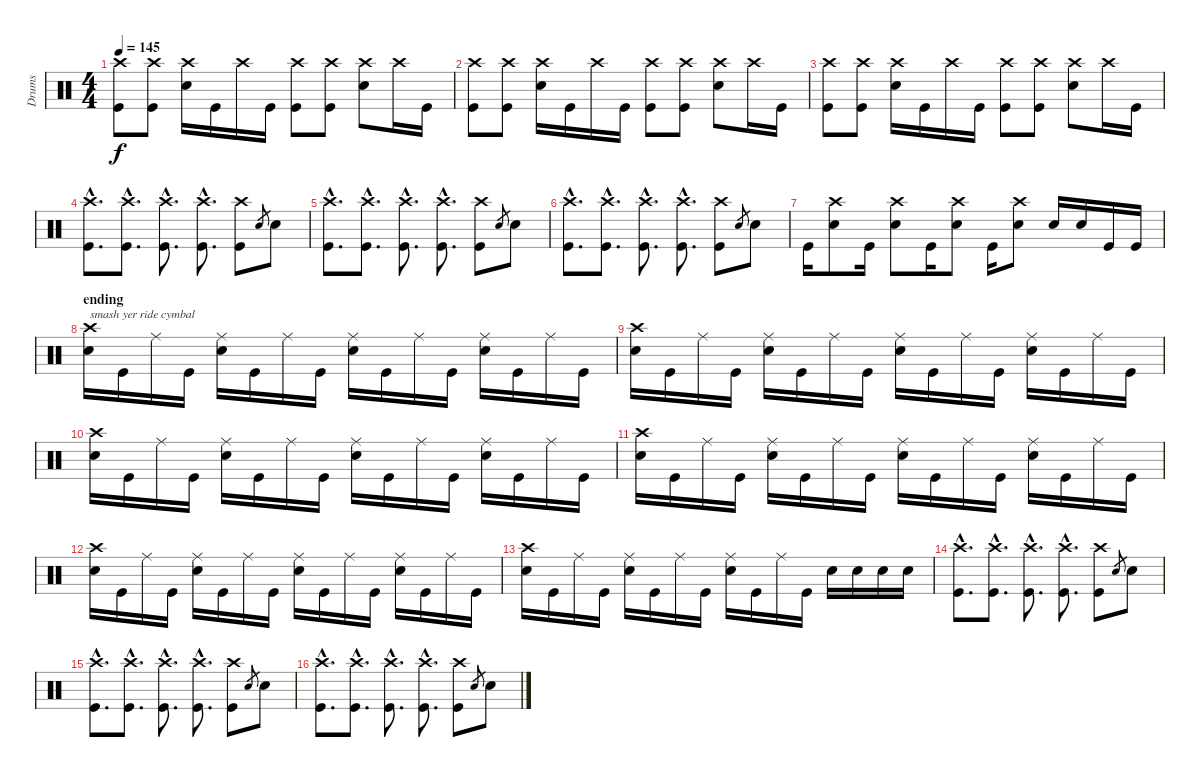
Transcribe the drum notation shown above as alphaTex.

\track ("Drums" "Drums") {instrument percussion}
\staff {score}
\articulation defaults
\ts (4 4)
\tempo 145
\clef neutral
\ks c
("Crash high (hit)" "Kick (hit)").8{dy f} ("Crash high (hit)" "Kick (hit)").8 ("Crash high (hit)" "Electric Snare (hit)").16 "Kick (hit)".16 "Crash high (hit)".16 "Kick (hit)".16 ("Crash high (hit)" "Kick (hit)").8 ("Crash high (hit)" "Kick (hit)").8 ("Crash high (hit)" "Electric Snare (hit)").8 "Crash high (hit)".16 "Kick (hit)".16 |
("Crash high (hit)" "Kick (hit)").8 ("Crash high (hit)" "Kick (hit)").8 ("Crash high (hit)" "Electric Snare (hit)").16 "Kick (hit)".16 "Crash high (hit)".16 "Kick (hit)".16 ("Crash high (hit)" "Kick (hit)").8 ("Crash high (hit)" "Kick (hit)").8 ("Crash high (hit)" "Electric Snare (hit)").8 "Crash high (hit)".16 "Kick (hit)".16 |
("Crash high (hit)" "Kick (hit)").8 ("Crash high (hit)" "Kick (hit)").8 ("Crash high (hit)" "Electric Snare (hit)").16 "Kick (hit)".16 "Crash high (hit)".16 "Kick (hit)".16 ("Crash high (hit)" "Kick (hit)").8 ("Crash high (hit)" "Kick (hit)").8 ("Crash high (hit)" "Electric Snare (hit)").8 "Crash high (hit)".16 "Kick (hit)".16 |
("Crash high (hit)"{hac} "Kick (hit)"{hac}).8{d} ("Crash high (hit)"{hac} "Kick (hit)"{hac}).8{d} ("Crash high (hit)"{hac} "Kick (hit)"{hac}).8{d} ("Crash high (hit)"{hac} "Kick (hit)"{hac}).8{d} ("Crash high (hit)" "Kick (hit)").8 "Electric Snare (hit)".8{gr} "Electric Snare (hit)".8 |
("Crash high (hit)"{hac} "Kick (hit)"{hac}).8{d} ("Crash high (hit)"{hac} "Kick (hit)"{hac}).8{d} ("Crash high (hit)"{hac} "Kick (hit)"{hac}).8{d} ("Crash high (hit)"{hac} "Kick (hit)"{hac}).8{d} ("Crash high (hit)" "Kick (hit)").8 "Electric Snare (hit)".8{gr} "Electric Snare (hit)".8 |
("Crash high (hit)"{hac} "Kick (hit)"{hac}).8{d} ("Crash high (hit)"{hac} "Kick (hit)"{hac}).8{d} ("Crash high (hit)"{hac} "Kick (hit)"{hac}).8{d} ("Crash high (hit)"{hac} "Kick (hit)"{hac}).8{d} ("Crash high (hit)" "Kick (hit)").8 "Electric Snare (hit)".8{gr} "Electric Snare (hit)".8 |
"Kick (hit)".16 ("Crash high (hit)" "Electric Snare (hit)").8 "Kick (hit)".16 ("Crash high (hit)" "Electric Snare (hit)").8 "Kick (hit)".16 ("Crash high (hit)" "Electric Snare (hit)").8 "Kick (hit)".16 ("Crash high (hit)" "Electric Snare (hit)").8 "Electric Snare (hit)".16 "Electric Snare (hit)".16 "Kick (hit)".16 "Kick (hit)".16 |
\section ("" "ending")
("Crash high (hit)" "Electric Snare (hit)").16{txt "smash yer ride cymbal"} "Kick (hit)".16 "Ride (middle)".16 "Kick (hit)".16 ("Ride (middle)" "Electric Snare (hit)").16 "Kick (hit)".16 "Ride (middle)".16 "Kick (hit)".16 ("Ride (middle)" "Electric Snare (hit)").16 "Kick (hit)".16 "Ride (middle)".16 "Kick (hit)".16 ("Ride (middle)" "Electric Snare (hit)").16 "Kick (hit)".16 "Ride (middle)".16 "Kick (hit)".16 |
("Crash high (hit)" "Electric Snare (hit)").16 "Kick (hit)".16 "Ride (middle)".16 "Kick (hit)".16 ("Ride (middle)" "Electric Snare (hit)").16 "Kick (hit)".16 "Ride (middle)".16 "Kick (hit)".16 ("Ride (middle)" "Electric Snare (hit)").16 "Kick (hit)".16 "Ride (middle)".16 "Kick (hit)".16 ("Ride (middle)" "Electric Snare (hit)").16 "Kick (hit)".16 "Ride (middle)".16 "Kick (hit)".16 |
("Crash high (hit)" "Electric Snare (hit)").16 "Kick (hit)".16 "Ride (middle)".16 "Kick (hit)".16 ("Ride (middle)" "Electric Snare (hit)").16 "Kick (hit)".16 "Ride (middle)".16 "Kick (hit)".16 ("Ride (middle)" "Electric Snare (hit)").16 "Kick (hit)".16 "Ride (middle)".16 "Kick (hit)".16 ("Ride (middle)" "Electric Snare (hit)").16 "Kick (hit)".16 "Ride (middle)".16 "Kick (hit)".16 |
("Crash high (hit)" "Electric Snare (hit)").16 "Kick (hit)".16 "Ride (middle)".16 "Kick (hit)".16 ("Ride (middle)" "Electric Snare (hit)").16 "Kick (hit)".16 "Ride (middle)".16 "Kick (hit)".16 ("Ride (middle)" "Electric Snare (hit)").16 "Kick (hit)".16 "Ride (middle)".16 "Kick (hit)".16 ("Ride (middle)" "Electric Snare (hit)").16 "Kick (hit)".16 "Ride (middle)".16 "Kick (hit)".16 |
("Crash high (hit)" "Electric Snare (hit)").16 "Kick (hit)".16 "Ride (middle)".16 "Kick (hit)".16 ("Ride (middle)" "Electric Snare (hit)").16 "Kick (hit)".16 "Ride (middle)".16 "Kick (hit)".16 ("Ride (middle)" "Electric Snare (hit)").16 "Kick (hit)".16 "Ride (middle)".16 "Kick (hit)".16 ("Ride (middle)" "Electric Snare (hit)").16 "Kick (hit)".16 "Ride (middle)".16 "Kick (hit)".16 |
("Crash high (hit)" "Electric Snare (hit)").16 "Kick (hit)".16 "Ride (middle)".16 "Kick (hit)".16 ("Ride (middle)" "Electric Snare (hit)").16 "Kick (hit)".16 "Ride (middle)".16 "Kick (hit)".16 ("Ride (middle)" "Electric Snare (hit)").16 "Kick (hit)".16 "Ride (middle)".16 "Kick (hit)".16 "Electric Snare (hit)".16 "Electric Snare (hit)".16 "Electric Snare (hit)".16 "Electric Snare (hit)".16 |
("Crash high (hit)"{hac} "Kick (hit)"{hac}).8{d} ("Crash high (hit)"{hac} "Kick (hit)"{hac}).8{d} ("Crash high (hit)"{hac} "Kick (hit)"{hac}).8{d} ("Crash high (hit)"{hac} "Kick (hit)"{hac}).8{d} ("Crash high (hit)" "Kick (hit)").8 "Electric Snare (hit)".8{gr} "Electric Snare (hit)".8 |
("Crash high (hit)"{hac} "Kick (hit)"{hac}).8{d} ("Crash high (hit)"{hac} "Kick (hit)"{hac}).8{d} ("Crash high (hit)"{hac} "Kick (hit)"{hac}).8{d} ("Crash high (hit)"{hac} "Kick (hit)"{hac}).8{d} ("Crash high (hit)" "Kick (hit)").8 "Electric Snare (hit)".8{gr} "Electric Snare (hit)".8 |
("Crash high (hit)"{hac} "Kick (hit)"{hac}).8{d} ("Crash high (hit)"{hac} "Kick (hit)"{hac}).8{d} ("Crash high (hit)"{hac} "Kick (hit)"{hac}).8{d} ("Crash high (hit)"{hac} "Kick (hit)"{hac}).8{d} ("Crash high (hit)" "Kick (hit)").8 "Electric Snare (hit)".8{gr} "Electric Snare (hit)".8
